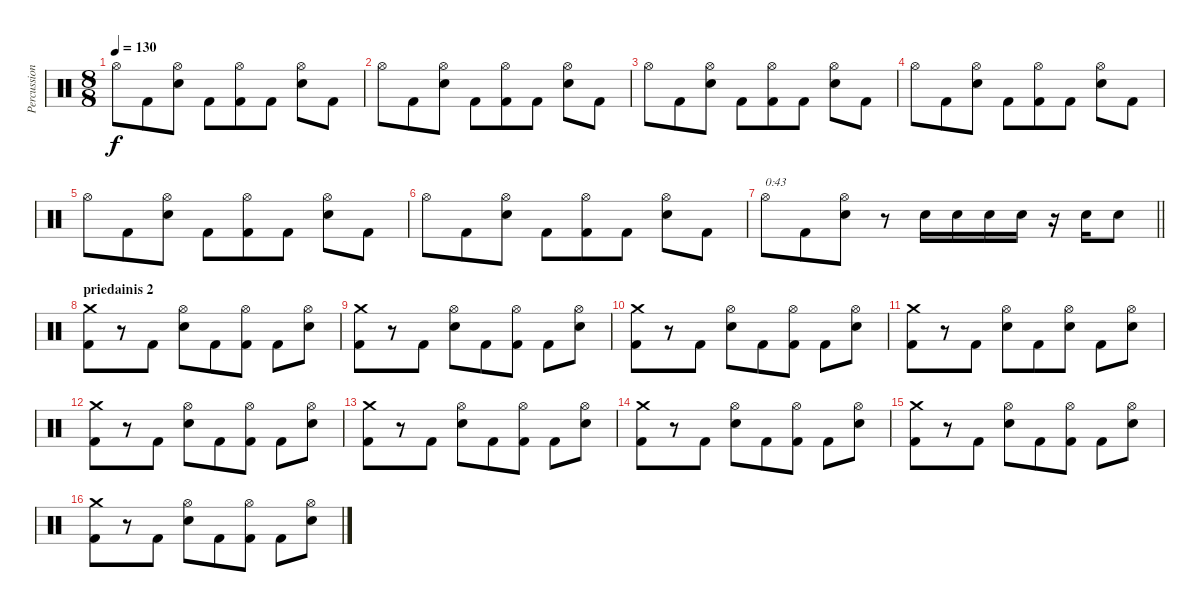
\track ("Percussion" "Percussion") {instrument percussion}
\staff {score}
\articulation defaults
\ts (8 8)
\tempo 130
\clef neutral
\ks c "Hi-Hat (open)".8{dy f} "Kick (hit) 2".8
("Hi-Hat (open)" "Snare (hit) 2").8 "Kick (hit) 2".8 ("Hi-Hat (open)" "Kick (hit) 2").8 "Kick (hit) 2".8 ("Hi-Hat (open)" "Snare (hit) 2").8 "Kick (hit) 2".8 |
"Hi-Hat (open)".8 "Kick (hit) 2".8 ("Hi-Hat (open)" "Snare (hit) 2").8 "Kick (hit) 2".8 ("Hi-Hat (open)" "Kick (hit) 2").8 "Kick (hit) 2".8 ("Hi-Hat (open)" "Snare (hit) 2").8 "Kick (hit) 2".8 |
"Hi-Hat (open)".8 "Kick (hit) 2".8 ("Hi-Hat (open)" "Snare (hit) 2").8 "Kick (hit) 2".8 ("Hi-Hat (open)" "Kick (hit) 2").8 "Kick (hit) 2".8 ("Hi-Hat (open)" "Snare (hit) 2").8 "Kick (hit) 2".8 |
"Hi-Hat (open)".8 "Kick (hit) 2".8 ("Hi-Hat (open)" "Snare (hit) 2").8 "Kick (hit) 2".8 ("Hi-Hat (open)" "Kick (hit) 2").8 "Kick (hit) 2".8 ("Hi-Hat (open)" "Snare (hit) 2").8 "Kick (hit) 2".8 |
"Hi-Hat (open)".8 "Kick (hit) 2".8 ("Hi-Hat (open)" "Snare (hit) 2").8 "Kick (hit) 2".8 ("Hi-Hat (open)" "Kick (hit) 2").8 "Kick (hit) 2".8 ("Hi-Hat (open)" "Snare (hit) 2").8 "Kick (hit) 2".8 |
"Hi-Hat (open)".8 "Kick (hit) 2".8 ("Hi-Hat (open)" "Snare (hit) 2").8 "Kick (hit) 2".8 ("Hi-Hat (open)" "Kick (hit) 2").8 "Kick (hit) 2".8 ("Hi-Hat (open)" "Snare (hit) 2").8 "Kick (hit) 2".8 |
\barLineRight lightlight "Hi-Hat (open)".8{txt "0:43"} "Kick (hit) 2".8
("Hi-Hat (open)" "Snare (hit) 2").8 r.8 "Snare (hit) 2".16 "Snare (hit) 2".16 "Snare (hit) 2".16 "Snare (hit) 2".16 r.16 "Snare (hit) 2".16 "Snare (hit) 2".8 |
\section ("" "priedainis 2")
("Crash medium (hit)" "Kick (hit) 2").8 r.8 "Kick (hit) 2".8 ("Hi-Hat (open)" "Snare (hit) 2").8 "Kick (hit) 2".8 ("Hi-Hat (open)" "Kick (hit) 2").8 "Kick (hit) 2".8 ("Hi-Hat (open)" "Snare (hit) 2").8 |
("Crash medium (hit)" "Kick (hit) 2").8 r.8 "Kick (hit) 2".8 ("Hi-Hat (open)" "Snare (hit) 2").8 "Kick (hit) 2".8 ("Hi-Hat (open)" "Kick (hit) 2").8 "Kick (hit) 2".8 ("Hi-Hat (open)" "Snare (hit) 2").8 |
("Crash medium (hit)" "Kick (hit) 2").8 r.8 "Kick (hit) 2".8 ("Hi-Hat (open)" "Snare (hit) 2").8 "Kick (hit) 2".8 ("Hi-Hat (open)" "Kick (hit) 2").8 "Kick (hit) 2".8 ("Hi-Hat (open)" "Snare (hit) 2").8 |
("Crash medium (hit)" "Kick (hit) 2").8 r.8 "Kick (hit) 2".8 ("Hi-Hat (open)" "Snare (hit) 2").8 "Kick (hit) 2".8 ("Hi-Hat (open)" "Snare (hit) 2").8 "Kick (hit) 2".8 ("Hi-Hat (open)" "Snare (hit) 2").8 |
("Crash medium (hit)" "Kick (hit) 2").8 r.8 "Kick (hit) 2".8 ("Hi-Hat (open)" "Snare (hit) 2").8 "Kick (hit) 2".8 ("Hi-Hat (open)" "Kick (hit) 2").8 "Kick (hit) 2".8 ("Hi-Hat (open)" "Snare (hit) 2").8 |
("Crash medium (hit)" "Kick (hit) 2").8 r.8 "Kick (hit) 2".8 ("Hi-Hat (open)" "Snare (hit) 2").8 "Kick (hit) 2".8 ("Hi-Hat (open)" "Kick (hit) 2").8 "Kick (hit) 2".8 ("Hi-Hat (open)" "Snare (hit) 2").8 |
("Crash medium (hit)" "Kick (hit) 2").8 r.8 "Kick (hit) 2".8 ("Hi-Hat (open)" "Snare (hit) 2").8 "Kick (hit) 2".8 ("Hi-Hat (open)" "Kick (hit) 2").8 "Kick (hit) 2".8 ("Hi-Hat (open)" "Snare (hit) 2").8 |
("Crash medium (hit)" "Kick (hit) 2").8 r.8 "Kick (hit) 2".8 ("Hi-Hat (open)" "Snare (hit) 2").8 "Kick (hit) 2".8 ("Hi-Hat (open)" "Kick (hit) 2").8 "Kick (hit) 2".8 ("Hi-Hat (open)" "Snare (hit) 2").8 |
("Crash medium (hit)" "Kick (hit) 2").8 r.8 "Kick (hit) 2".8 ("Hi-Hat (open)" "Snare (hit) 2").8 "Kick (hit) 2".8 ("Hi-Hat (open)" "Kick (hit) 2").8 "Kick (hit) 2".8 ("Hi-Hat (open)" "Snare (hit) 2").8
